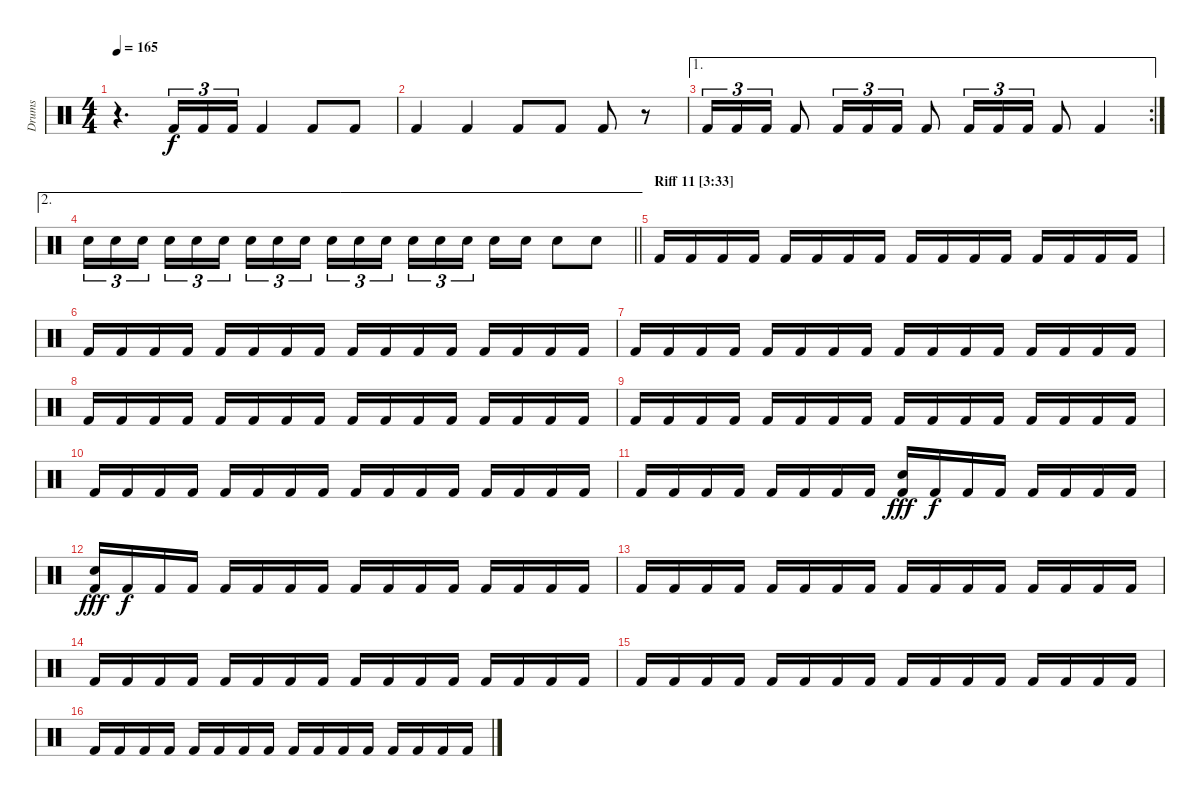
\track ("Drums" "Drums") {instrument percussion}
\staff {score}
\articulation defaults
\ts (4 4)
\tempo 165
\clef neutral
\ks c
r.4{d dy f} "Kick (hit) 2".16{tu (3 2)} "Kick (hit) 2".16{tu (3 2)} "Kick (hit) 2".16{tu (3 2)} "Kick (hit) 2".4 "Kick (hit) 2".8 "Kick (hit) 2".8 |
"Kick (hit) 2".4 "Kick (hit) 2".4 "Kick (hit) 2".8 "Kick (hit) 2".8 "Kick (hit) 2".8 r.8 |
\ae 1
\rc 2 "Kick (hit) 2".16{tu (3 2)} "Kick (hit) 2".16{tu (3 2)} "Kick (hit) 2".16{tu (3 2)} "Kick (hit) 2".8 "Kick (hit) 2".16{tu (3 2)} "Kick (hit) 2".16{tu (3 2)} "Kick (hit) 2".16{tu (3 2)} "Kick (hit) 2".8 "Kick (hit) 2".16{tu (3 2)} "Kick (hit) 2".16{tu (3 2)} "Kick (hit) 2".16{tu (3 2)} "Kick (hit) 2".8 "Kick (hit) 2".4
|
\ae 2
\barLineRight lightlight "Electric Snare (hit)".16{tu (3 2)} "Electric Snare (hit)".16{tu (3 2)} "Electric Snare (hit)".16{tu (3 2) beam splitsecondary} "Electric Snare (hit)".16{tu (3 2)} "Electric Snare (hit)".16{tu (3 2)} "Electric Snare (hit)".16{tu (3 2)} "Electric Snare (hit)".16{tu (3 2)} "Electric Snare (hit)".16{tu (3 2)} "Electric Snare (hit)".16{tu (3 2) beam splitsecondary} "Electric Snare (hit)".16{tu (3 2)} "Electric Snare (hit)".16{tu (3 2)} "Electric Snare (hit)".16{tu (3 2)} "Electric Snare (hit)".16{tu (3 2)} "Electric Snare (hit)".16{tu (3 2)} "Electric Snare (hit)".16{tu (3 2) beam splitsecondary} "Electric Snare (hit)".16 "Electric Snare (hit)".16 "Electric Snare (hit)".8 "Electric Snare (hit)".8
|
\section ("" "Riff 11 [3:33]")
"Kick (hit) 2".16 "Kick (hit) 2".16 "Kick (hit) 2".16 "Kick (hit) 2".16 "Kick (hit) 2".16 "Kick (hit) 2".16 "Kick (hit) 2".16 "Kick (hit) 2".16 "Kick (hit) 2".16 "Kick (hit) 2".16 "Kick (hit) 2".16 "Kick (hit) 2".16 "Kick (hit) 2".16 "Kick (hit) 2".16 "Kick (hit) 2".16 "Kick (hit) 2".16 |
"Kick (hit) 2".16 "Kick (hit) 2".16 "Kick (hit) 2".16 "Kick (hit) 2".16 "Kick (hit) 2".16 "Kick (hit) 2".16 "Kick (hit) 2".16 "Kick (hit) 2".16 "Kick (hit) 2".16 "Kick (hit) 2".16 "Kick (hit) 2".16 "Kick (hit) 2".16 "Kick (hit) 2".16 "Kick (hit) 2".16 "Kick (hit) 2".16 "Kick (hit) 2".16 |
"Kick (hit) 2".16 "Kick (hit) 2".16 "Kick (hit) 2".16 "Kick (hit) 2".16 "Kick (hit) 2".16 "Kick (hit) 2".16 "Kick (hit) 2".16 "Kick (hit) 2".16 "Kick (hit) 2".16 "Kick (hit) 2".16 "Kick (hit) 2".16 "Kick (hit) 2".16 "Kick (hit) 2".16 "Kick (hit) 2".16 "Kick (hit) 2".16 "Kick (hit) 2".16 |
"Kick (hit) 2".16 "Kick (hit) 2".16 "Kick (hit) 2".16 "Kick (hit) 2".16 "Kick (hit) 2".16 "Kick (hit) 2".16 "Kick (hit) 2".16 "Kick (hit) 2".16 "Kick (hit) 2".16 "Kick (hit) 2".16 "Kick (hit) 2".16 "Kick (hit) 2".16 "Kick (hit) 2".16 "Kick (hit) 2".16 "Kick (hit) 2".16 "Kick (hit) 2".16 |
"Kick (hit) 2".16 "Kick (hit) 2".16 "Kick (hit) 2".16 "Kick (hit) 2".16 "Kick (hit) 2".16 "Kick (hit) 2".16 "Kick (hit) 2".16 "Kick (hit) 2".16 "Kick (hit) 2".16 "Kick (hit) 2".16 "Kick (hit) 2".16 "Kick (hit) 2".16 "Kick (hit) 2".16 "Kick (hit) 2".16 "Kick (hit) 2".16 "Kick (hit) 2".16 |
"Kick (hit) 2".16 "Kick (hit) 2".16 "Kick (hit) 2".16 "Kick (hit) 2".16 "Kick (hit) 2".16 "Kick (hit) 2".16 "Kick (hit) 2".16 "Kick (hit) 2".16 "Kick (hit) 2".16 "Kick (hit) 2".16 "Kick (hit) 2".16 "Kick (hit) 2".16 "Kick (hit) 2".16 "Kick (hit) 2".16 "Kick (hit) 2".16 "Kick (hit) 2".16 |
"Kick (hit) 2".16 "Kick (hit) 2".16 "Kick (hit) 2".16 "Kick (hit) 2".16 "Kick (hit) 2".16 "Kick (hit) 2".16 "Kick (hit) 2".16 "Kick (hit) 2".16 ("Electric Snare (hit)" "Kick (hit) 2").16{dy fff} "Kick (hit) 2".16{dy f} "Kick (hit) 2".16 "Kick (hit) 2".16 "Kick (hit) 2".16 "Kick (hit) 2".16 "Kick (hit) 2".16 "Kick (hit) 2".16 |
("Electric Snare (hit)" "Kick (hit) 2").16{dy fff} "Kick (hit) 2".16{dy f} "Kick (hit) 2".16 "Kick (hit) 2".16 "Kick (hit) 2".16 "Kick (hit) 2".16 "Kick (hit) 2".16 "Kick (hit) 2".16 "Kick (hit) 2".16 "Kick (hit) 2".16 "Kick (hit) 2".16 "Kick (hit) 2".16 "Kick (hit) 2".16 "Kick (hit) 2".16 "Kick (hit) 2".16 "Kick (hit) 2".16 |
"Kick (hit) 2".16 "Kick (hit) 2".16 "Kick (hit) 2".16 "Kick (hit) 2".16 "Kick (hit) 2".16 "Kick (hit) 2".16 "Kick (hit) 2".16 "Kick (hit) 2".16 "Kick (hit) 2".16 "Kick (hit) 2".16 "Kick (hit) 2".16 "Kick (hit) 2".16 "Kick (hit) 2".16 "Kick (hit) 2".16 "Kick (hit) 2".16 "Kick (hit) 2".16 |
"Kick (hit) 2".16 "Kick (hit) 2".16 "Kick (hit) 2".16 "Kick (hit) 2".16 "Kick (hit) 2".16 "Kick (hit) 2".16 "Kick (hit) 2".16 "Kick (hit) 2".16 "Kick (hit) 2".16 "Kick (hit) 2".16 "Kick (hit) 2".16 "Kick (hit) 2".16 "Kick (hit) 2".16 "Kick (hit) 2".16 "Kick (hit) 2".16 "Kick (hit) 2".16 |
"Kick (hit) 2".16 "Kick (hit) 2".16 "Kick (hit) 2".16 "Kick (hit) 2".16 "Kick (hit) 2".16 "Kick (hit) 2".16 "Kick (hit) 2".16 "Kick (hit) 2".16 "Kick (hit) 2".16 "Kick (hit) 2".16 "Kick (hit) 2".16 "Kick (hit) 2".16 "Kick (hit) 2".16 "Kick (hit) 2".16 "Kick (hit) 2".16 "Kick (hit) 2".16 |
"Kick (hit) 2".16 "Kick (hit) 2".16 "Kick (hit) 2".16 "Kick (hit) 2".16 "Kick (hit) 2".16 "Kick (hit) 2".16 "Kick (hit) 2".16 "Kick (hit) 2".16 "Kick (hit) 2".16 "Kick (hit) 2".16 "Kick (hit) 2".16 "Kick (hit) 2".16 "Kick (hit) 2".16 "Kick (hit) 2".16 "Kick (hit) 2".16 "Kick (hit) 2".16
